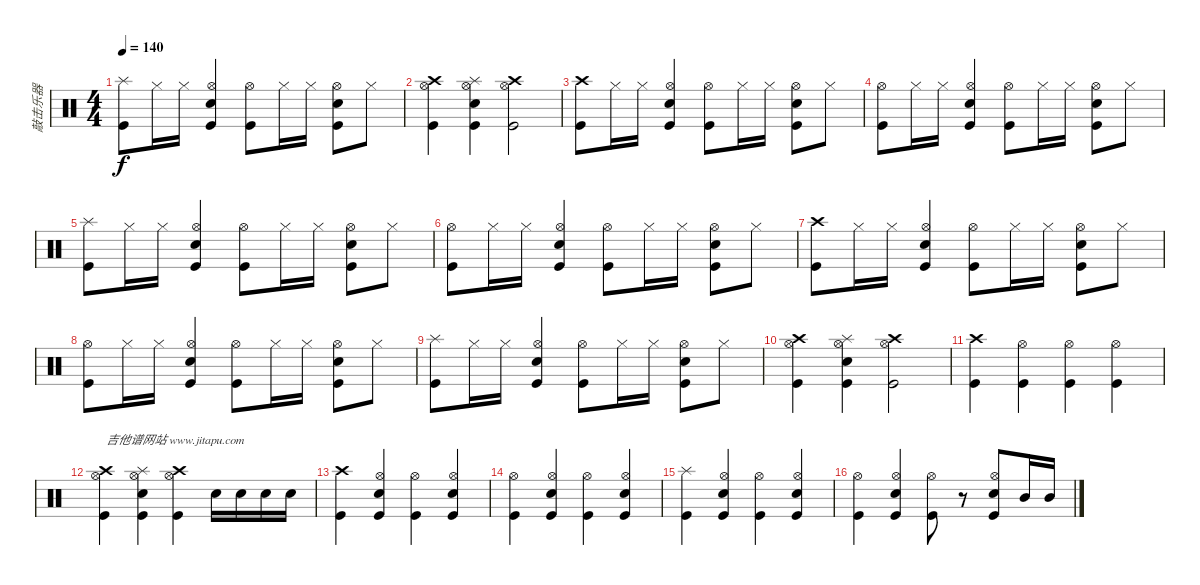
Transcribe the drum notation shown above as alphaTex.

\track ("敲击乐器" "敲击乐器") {instrument percussion}
\staff {score}
\articulation defaults
\ts (4 4)
\tempo 140
\clef neutral
\ks c
("Splash (hit)" "Kick (hit)").8{dy f} "Hi-Hat (closed)".16 "Hi-Hat (closed)".16 ("Hi-Hat (open)" "Electric Snare (hit)" "Kick (hit)").4 ("Hi-Hat (open)" "Kick (hit)").8 "Hi-Hat (closed)".16 "Hi-Hat (closed)".16 ("Hi-Hat (open)" "Electric Snare (hit)" "Kick (hit)").8 "Hi-Hat (closed)".8 |
("Crash high (hit)" "Hi-Hat (open)" "Kick (hit)").4 ("Splash (hit)" "Hi-Hat (open)" "Electric Snare (hit)" "Kick (hit)").4 ("Crash high (hit)" "Hi-Hat (open)" "Kick (hit)").2 |
("Crash high (hit)" "Kick (hit)").8 "Hi-Hat (closed)".16 "Hi-Hat (closed)".16 ("Hi-Hat (open)" "Electric Snare (hit)" "Kick (hit)").4 ("Hi-Hat (open)" "Kick (hit)").8 "Hi-Hat (closed)".16 "Hi-Hat (closed)".16 ("Hi-Hat (open)" "Electric Snare (hit)" "Kick (hit)").8 "Hi-Hat (closed)".8 |
("Hi-Hat (open)" "Kick (hit)").8 "Hi-Hat (closed)".16 "Hi-Hat (closed)".16 ("Hi-Hat (open)" "Electric Snare (hit)" "Kick (hit)").4 ("Hi-Hat (open)" "Kick (hit)").8 "Hi-Hat (closed)".16 "Hi-Hat (closed)".16 ("Hi-Hat (open)" "Electric Snare (hit)" "Kick (hit)").8 "Hi-Hat (closed)".8 |
("Splash (hit)" "Kick (hit)").8 "Hi-Hat (closed)".16 "Hi-Hat (closed)".16 ("Hi-Hat (open)" "Electric Snare (hit)" "Kick (hit)").4 ("Hi-Hat (open)" "Kick (hit)").8 "Hi-Hat (closed)".16 "Hi-Hat (closed)".16 ("Hi-Hat (open)" "Electric Snare (hit)" "Kick (hit)").8 "Hi-Hat (closed)".8 |
("Hi-Hat (open)" "Kick (hit)").8 "Hi-Hat (closed)".16 "Hi-Hat (closed)".16 ("Hi-Hat (open)" "Electric Snare (hit)" "Kick (hit)").4 ("Hi-Hat (open)" "Kick (hit)").8 "Hi-Hat (closed)".16 "Hi-Hat (closed)".16 ("Hi-Hat (open)" "Electric Snare (hit)" "Kick (hit)").8 "Hi-Hat (closed)".8 |
("Crash high (hit)" "Kick (hit)").8 "Hi-Hat (closed)".16 "Hi-Hat (closed)".16 ("Hi-Hat (open)" "Electric Snare (hit)" "Kick (hit)").4 ("Hi-Hat (open)" "Kick (hit)").8 "Hi-Hat (closed)".16 "Hi-Hat (closed)".16 ("Hi-Hat (open)" "Electric Snare (hit)" "Kick (hit)").8 "Hi-Hat (closed)".8 |
("Hi-Hat (open)" "Kick (hit)").8 "Hi-Hat (closed)".16 "Hi-Hat (closed)".16 ("Hi-Hat (open)" "Electric Snare (hit)" "Kick (hit)").4 ("Hi-Hat (open)" "Kick (hit)").8 "Hi-Hat (closed)".16 "Hi-Hat (closed)".16 ("Hi-Hat (open)" "Electric Snare (hit)" "Kick (hit)").8 "Hi-Hat (closed)".8 |
("Splash (hit)" "Kick (hit)").8 "Hi-Hat (closed)".16 "Hi-Hat (closed)".16 ("Hi-Hat (open)" "Electric Snare (hit)" "Kick (hit)").4 ("Hi-Hat (open)" "Kick (hit)").8 "Hi-Hat (closed)".16 "Hi-Hat (closed)".16 ("Hi-Hat (open)" "Electric Snare (hit)" "Kick (hit)").8 "Hi-Hat (closed)".8 |
("Crash high (hit)" "Hi-Hat (open)" "Kick (hit)").4 ("Splash (hit)" "Hi-Hat (open)" "Electric Snare (hit)" "Kick (hit)").4 ("Crash high (hit)" "Hi-Hat (open)" "Kick (hit)").2 |
("Crash high (hit)" "Kick (hit)").4 ("Hi-Hat (open)" "Kick (hit)").4 ("Hi-Hat (open)" "Kick (hit)").4 ("Hi-Hat (open)" "Kick (hit)").4 |
("Crash high (hit)" "Hi-Hat (open)" "Kick (hit)").4{txt "吉他谱网站 www.jitapu.com"} ("Splash (hit)" "Hi-Hat (open)" "Electric Snare (hit)" "Kick (hit)").4 ("Crash high (hit)" "Hi-Hat (open)" "Kick (hit)").4 "Electric Snare (hit)".16 "Electric Snare (hit)".16 "Electric Snare (hit)".16 "Electric Snare (hit)".16 |
("Crash high (hit)" "Kick (hit)").4 ("Hi-Hat (open)" "Electric Snare (hit)" "Kick (hit)").4 ("Hi-Hat (open)" "Kick (hit)").4 ("Hi-Hat (open)" "Electric Snare (hit)" "Kick (hit)").4 |
("Hi-Hat (open)" "Kick (hit)").4 ("Hi-Hat (open)" "Electric Snare (hit)" "Kick (hit)").4 ("Hi-Hat (open)" "Kick (hit)").4 ("Hi-Hat (open)" "Electric Snare (hit)" "Kick (hit)").4 |
("Splash (hit)" "Kick (hit)").4 ("Hi-Hat (open)" "Electric Snare (hit)" "Kick (hit)").4 ("Hi-Hat (open)" "Kick (hit)").4 ("Hi-Hat (open)" "Electric Snare (hit)" "Kick (hit)").4 |
("Hi-Hat (open)" "Kick (hit)").4 ("Hi-Hat (open)" "Electric Snare (hit)" "Kick (hit)").4 ("Hi-Hat (open)" "Kick (hit)").8 r.8 ("Hi-Hat (open)" "Electric Snare (hit)" "Kick (hit)").8 "Mid Tom (hit)".16 "Mid Tom (hit)".16
